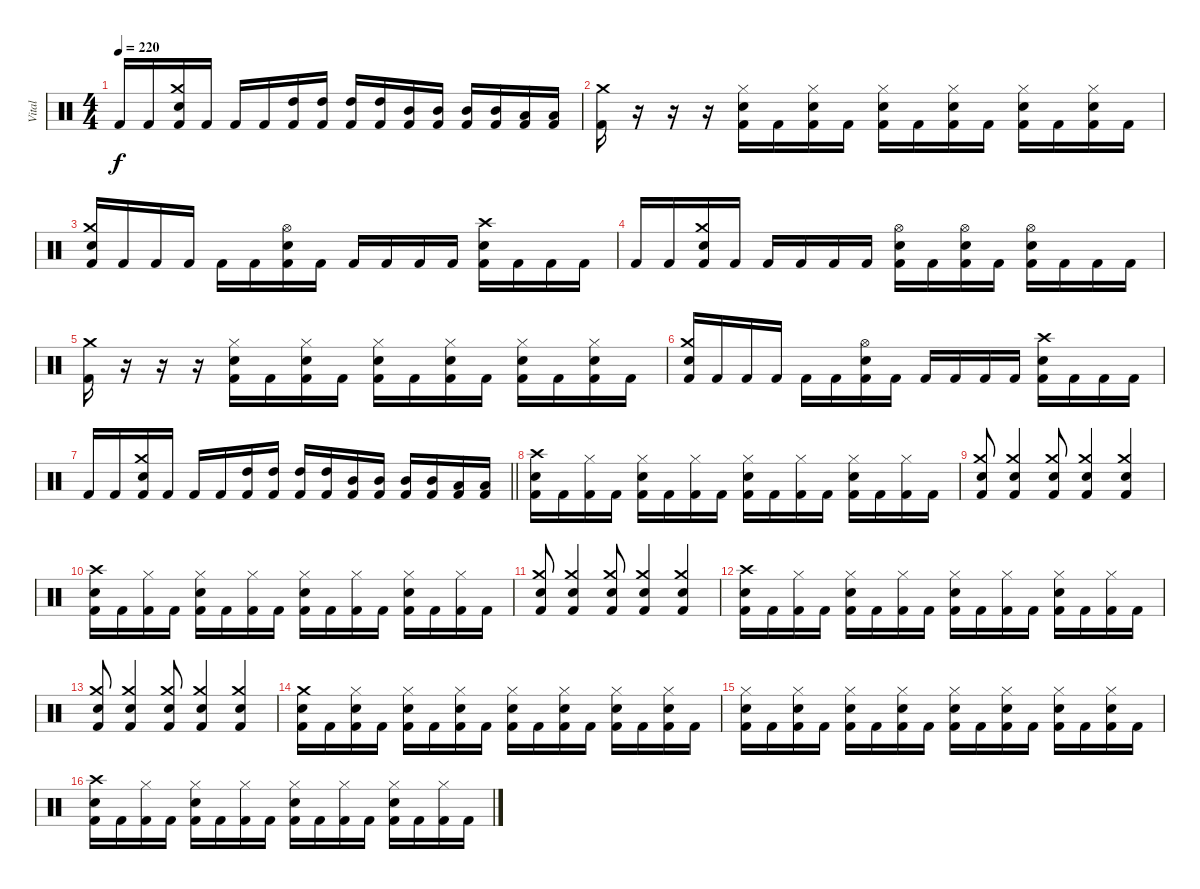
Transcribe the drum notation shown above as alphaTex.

\track ("Vital" "Vital") {instrument percussion}
\staff {score}
\articulation defaults
\ts (4 4)
\tempo 220
\clef neutral
\ks c "Kick (hit) 2".16{dy f} "Kick (hit) 2".16
("Crash medium (hit)" "Snare (hit) 2" "Kick (hit) 2").16 "Kick (hit) 2".16 "Kick (hit) 2".16 "Kick (hit) 2".16 ("High Tom (hit)" "Kick (hit) 2").16 ("High Tom (hit)" "Kick (hit) 2").16 ("High Tom (hit)" "Kick (hit) 2").16 ("High Tom (hit)" "Kick (hit) 2").16 ("Mid Tom (hit)" "Kick (hit) 2").16 ("Mid Tom (hit)" "Kick (hit) 2").16 ("Mid Tom (hit)" "Kick (hit) 2").16 ("Mid Tom (hit)" "Kick (hit) 2").16 ("Low Tom (hit)" "Kick (hit) 2").16 ("Low Tom (hit)" "Kick (hit) 2").16 |
("Crash medium (hit)" "Kick (hit) 2").16 r.16 r.16 r.16 ("Hi-Hat (closed)" "Snare (hit) 2" "Kick (hit) 2").16 "Kick (hit) 2".16 ("Hi-Hat (closed)" "Snare (hit) 2" "Kick (hit) 2").16 "Kick (hit) 2".16 ("Hi-Hat (closed)" "Snare (hit) 2" "Kick (hit) 2").16 "Kick (hit) 2".16 ("Hi-Hat (closed)" "Snare (hit) 2" "Kick (hit) 2").16 "Kick (hit) 2".16 ("Hi-Hat (closed)" "Snare (hit) 2" "Kick (hit) 2").16 "Kick (hit) 2".16 ("Hi-Hat (closed)" "Snare (hit) 2" "Kick (hit) 2").16 "Kick (hit) 2".16 |
("Crash medium (hit)" "Snare (hit) 2" "Kick (hit) 2").16 "Kick (hit) 2".16 "Kick (hit) 2".16 "Kick (hit) 2".16 "Kick (hit) 2".16 "Kick (hit) 2".16 ("Hi-Hat (open)" "Snare (hit) 2" "Kick (hit) 2").16 "Kick (hit) 2".16 "Kick (hit) 2".16 "Kick (hit) 2".16 "Kick (hit) 2".16 "Kick (hit) 2".16 ("Crash high (hit)" "Snare (hit) 2" "Kick (hit) 2").16 "Kick (hit) 2".16 "Kick (hit) 2".16 "Kick (hit) 2".16 |
"Kick (hit) 2".16 "Kick (hit) 2".16 ("Crash medium (hit)" "Snare (hit) 2" "Kick (hit) 2").16 "Kick (hit) 2".16 "Kick (hit) 2".16 "Kick (hit) 2".16 "Kick (hit) 2".16 "Kick (hit) 2".16 ("Hi-Hat (open)" "Snare (hit) 2" "Kick (hit) 2").16 "Kick (hit) 2".16 ("Hi-Hat (open)" "Snare (hit) 2" "Kick (hit) 2").16 "Kick (hit) 2".16 ("Hi-Hat (open)" "Snare (hit) 2" "Kick (hit) 2").16 "Kick (hit) 2".16 "Kick (hit) 2".16 "Kick (hit) 2".16 |
("Crash medium (hit)" "Kick (hit) 2").16 r.16 r.16 r.16 ("Hi-Hat (closed)" "Snare (hit) 2" "Kick (hit) 2").16 "Kick (hit) 2".16 ("Hi-Hat (closed)" "Snare (hit) 2" "Kick (hit) 2").16 "Kick (hit) 2".16 ("Hi-Hat (closed)" "Snare (hit) 2" "Kick (hit) 2").16 "Kick (hit) 2".16 ("Hi-Hat (closed)" "Snare (hit) 2" "Kick (hit) 2").16 "Kick (hit) 2".16 ("Hi-Hat (closed)" "Snare (hit) 2" "Kick (hit) 2").16 "Kick (hit) 2".16 ("Hi-Hat (closed)" "Snare (hit) 2" "Kick (hit) 2").16 "Kick (hit) 2".16 |
("Crash medium (hit)" "Snare (hit) 2" "Kick (hit) 2").16 "Kick (hit) 2".16 "Kick (hit) 2".16 "Kick (hit) 2".16 "Kick (hit) 2".16 "Kick (hit) 2".16 ("Hi-Hat (open)" "Snare (hit) 2" "Kick (hit) 2").16 "Kick (hit) 2".16 "Kick (hit) 2".16 "Kick (hit) 2".16 "Kick (hit) 2".16 "Kick (hit) 2".16 ("Crash high (hit)" "Snare (hit) 2" "Kick (hit) 2").16 "Kick (hit) 2".16 "Kick (hit) 2".16 "Kick (hit) 2".16 |
\barLineRight lightlight "Kick (hit) 2".16 "Kick (hit) 2".16
("Crash medium (hit)" "Snare (hit) 2" "Kick (hit) 2").16 "Kick (hit) 2".16 "Kick (hit) 2".16 "Kick (hit) 2".16 ("High Tom (hit)" "Kick (hit) 2").16 ("High Tom (hit)" "Kick (hit) 2").16 ("High Tom (hit)" "Kick (hit) 2").16 ("High Tom (hit)" "Kick (hit) 2").16 ("Mid Tom (hit)" "Kick (hit) 2").16 ("Mid Tom (hit)" "Kick (hit) 2").16 ("Mid Tom (hit)" "Kick (hit) 2").16 ("Mid Tom (hit)" "Kick (hit) 2").16 ("Low Tom (hit)" "Kick (hit) 2").16 ("Low Tom (hit)" "Kick (hit) 2").16 |
("Crash high (hit)" "Snare (hit) 2" "Kick (hit) 2").16 "Kick (hit) 2".16 ("Hi-Hat (closed)" "Kick (hit) 2").16 "Kick (hit) 2".16 ("Hi-Hat (closed)" "Snare (hit) 2" "Kick (hit) 2").16 "Kick (hit) 2".16 ("Hi-Hat (closed)" "Kick (hit) 2").16 "Kick (hit) 2".16 ("Hi-Hat (closed)" "Snare (hit) 2" "Kick (hit) 2").16 "Kick (hit) 2".16 ("Hi-Hat (closed)" "Kick (hit) 2").16 "Kick (hit) 2".16 ("Hi-Hat (closed)" "Snare (hit) 2" "Kick (hit) 2").16 "Kick (hit) 2".16 ("Hi-Hat (closed)" "Kick (hit) 2").16 "Kick (hit) 2".16 |
("Crash medium (hit)" "Snare (hit) 2" "Kick (hit) 2").8 ("Crash medium (hit)" "Snare (hit) 2" "Kick (hit) 2").4 ("Crash medium (hit)" "Snare (hit) 2" "Kick (hit) 2").8 ("Crash medium (hit)" "Snare (hit) 2" "Kick (hit) 2").4 ("Crash medium (hit)" "Snare (hit) 2" "Kick (hit) 2").4 |
("Crash high (hit)" "Snare (hit) 2" "Kick (hit) 2").16 "Kick (hit) 2".16 ("Hi-Hat (closed)" "Kick (hit) 2").16 "Kick (hit) 2".16 ("Hi-Hat (closed)" "Snare (hit) 2" "Kick (hit) 2").16 "Kick (hit) 2".16 ("Hi-Hat (closed)" "Kick (hit) 2").16 "Kick (hit) 2".16 ("Hi-Hat (closed)" "Snare (hit) 2" "Kick (hit) 2").16 "Kick (hit) 2".16 ("Hi-Hat (closed)" "Kick (hit) 2").16 "Kick (hit) 2".16 ("Hi-Hat (closed)" "Snare (hit) 2" "Kick (hit) 2").16 "Kick (hit) 2".16 ("Hi-Hat (closed)" "Kick (hit) 2").16 "Kick (hit) 2".16 |
("Crash medium (hit)" "Snare (hit) 2" "Kick (hit) 2").8 ("Crash medium (hit)" "Snare (hit) 2" "Kick (hit) 2").4 ("Crash medium (hit)" "Snare (hit) 2" "Kick (hit) 2").8 ("Crash medium (hit)" "Snare (hit) 2" "Kick (hit) 2").4 ("Crash medium (hit)" "Snare (hit) 2" "Kick (hit) 2").4 |
("Crash high (hit)" "Snare (hit) 2" "Kick (hit) 2").16 "Kick (hit) 2".16 ("Hi-Hat (closed)" "Kick (hit) 2").16 "Kick (hit) 2".16 ("Hi-Hat (closed)" "Snare (hit) 2" "Kick (hit) 2").16 "Kick (hit) 2".16 ("Hi-Hat (closed)" "Kick (hit) 2").16 "Kick (hit) 2".16 ("Hi-Hat (closed)" "Snare (hit) 2" "Kick (hit) 2").16 "Kick (hit) 2".16 ("Hi-Hat (closed)" "Kick (hit) 2").16 "Kick (hit) 2".16 ("Hi-Hat (closed)" "Snare (hit) 2" "Kick (hit) 2").16 "Kick (hit) 2".16 ("Hi-Hat (closed)" "Kick (hit) 2").16 "Kick (hit) 2".16 |
("Crash medium (hit)" "Snare (hit) 2" "Kick (hit) 2").8 ("Crash medium (hit)" "Snare (hit) 2" "Kick (hit) 2").4 ("Crash medium (hit)" "Snare (hit) 2" "Kick (hit) 2").8 ("Crash medium (hit)" "Snare (hit) 2" "Kick (hit) 2").4 ("Crash medium (hit)" "Snare (hit) 2" "Kick (hit) 2").4 |
("Crash medium (hit)" "Snare (hit) 2" "Kick (hit) 2").16 "Kick (hit) 2".16 ("Hi-Hat (closed)" "Snare (hit) 2" "Kick (hit) 2").16 "Kick (hit) 2".16 ("Hi-Hat (closed)" "Snare (hit) 2" "Kick (hit) 2").16 "Kick (hit) 2".16 ("Hi-Hat (closed)" "Snare (hit) 2" "Kick (hit) 2").16 "Kick (hit) 2".16 ("Hi-Hat (closed)" "Snare (hit) 2" "Kick (hit) 2").16 "Kick (hit) 2".16 ("Hi-Hat (closed)" "Snare (hit) 2" "Kick (hit) 2").16 "Kick (hit) 2".16 ("Hi-Hat (closed)" "Snare (hit) 2" "Kick (hit) 2").16 "Kick (hit) 2".16 ("Hi-Hat (closed)" "Snare (hit) 2" "Kick (hit) 2").16 "Kick (hit) 2".16 |
("Hi-Hat (closed)" "Snare (hit) 2" "Kick (hit) 2").16 "Kick (hit) 2".16 ("Hi-Hat (closed)" "Snare (hit) 2" "Kick (hit) 2").16 "Kick (hit) 2".16 ("Hi-Hat (closed)" "Snare (hit) 2" "Kick (hit) 2").16 "Kick (hit) 2".16 ("Hi-Hat (closed)" "Snare (hit) 2" "Kick (hit) 2").16 "Kick (hit) 2".16 ("Hi-Hat (closed)" "Snare (hit) 2" "Kick (hit) 2").16 "Kick (hit) 2".16 ("Hi-Hat (closed)" "Snare (hit) 2" "Kick (hit) 2").16 "Kick (hit) 2".16 ("Hi-Hat (closed)" "Snare (hit) 2" "Kick (hit) 2").16 "Kick (hit) 2".16 ("Hi-Hat (closed)" "Snare (hit) 2" "Kick (hit) 2").16 "Kick (hit) 2".16 |
("Crash high (hit)" "Snare (hit) 2" "Kick (hit) 2").16 "Kick (hit) 2".16 ("Hi-Hat (closed)" "Kick (hit) 2").16 "Kick (hit) 2".16 ("Hi-Hat (closed)" "Snare (hit) 2" "Kick (hit) 2").16 "Kick (hit) 2".16 ("Hi-Hat (closed)" "Kick (hit) 2").16 "Kick (hit) 2".16 ("Hi-Hat (closed)" "Snare (hit) 2" "Kick (hit) 2").16 "Kick (hit) 2".16 ("Hi-Hat (closed)" "Kick (hit) 2").16 "Kick (hit) 2".16 ("Hi-Hat (closed)" "Snare (hit) 2" "Kick (hit) 2").16 "Kick (hit) 2".16 ("Hi-Hat (closed)" "Kick (hit) 2").16 "Kick (hit) 2".16
